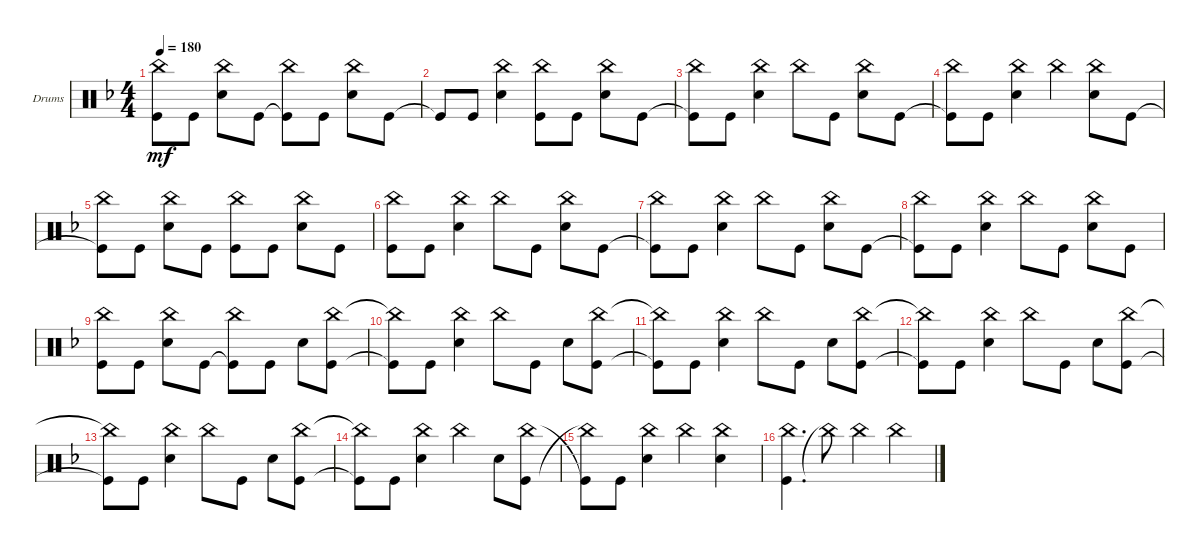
\defaultSystemsLayout 4
\bracketExtendMode groupsimilarinstruments
\firstSystemTrackNameOrientation horizontal
\otherSystemsTrackNameOrientation horizontal
\track ("Drumkit" "Drums") {instrument percussion}
\staff {score}
\articulation defaults
\ts (4 4)
\tempo 180
\clef neutral
\scale
0.333333
\ks f
("Kick (hit)"{t} "China (hit)").8{dy mf} "Kick (hit)".8 ("Snare (hit) 2" "China (hit)").8 "Kick (hit)".8 ("Kick (hit)"{t} "China (hit)").8 "Kick (hit)".8 ("Snare (hit) 2" "China (hit)").8 "Kick (hit)".8 |
\scale
0.333333 "Kick (hit)"{t}.8 "Kick (hit)".8 ("Snare (hit) 2" "China (hit)").4 ("China (hit)" "Kick (hit)").8 "Kick (hit)".8 ("Snare (hit) 2" "China (hit)").8 "Kick (hit)".8 |
\scale
0.333333 ("Kick (hit)"{t} "China (hit)").8 "Kick (hit)".8 ("Snare (hit) 2" "China (hit)").4 "China (hit)".8 "Kick (hit)".8 ("Snare (hit) 2" "China (hit)").8 "Kick (hit)".8 |
\scale
0.333333 ("Kick (hit)"{t} "China (hit)").8 "Kick (hit)".8 ("China (hit)" "Snare (hit) 2").4 "China (hit)".4 ("Snare (hit) 2" "China (hit)").8 "Kick (hit)".8 |
\scale
0.333333 ("Kick (hit)"{t} "China (hit)").8 "Kick (hit)".8 ("Snare (hit) 2" "China (hit)").8 "Kick (hit)".8 ("Kick (hit)" "China (hit)").8 "Kick (hit)".8 ("Snare (hit) 2" "China (hit)").8 "Kick (hit)".8 |
\scale
0.333333 ("Kick (hit)" "China (hit)").8 "Kick (hit)".8 ("Snare (hit) 2" "China (hit)").4 "China (hit)".8 "Kick (hit)".8 ("Snare (hit) 2" "China (hit)").8 "Kick (hit)".8 |
\scale
0.333333 ("Kick (hit)"{t} "China (hit)").8 "Kick (hit)".8 ("Snare (hit) 2" "China (hit)").4 "China (hit)".8 "Kick (hit)".8 ("Snare (hit) 2" "China (hit)").8 "Kick (hit)".8 |
\scale
0.333333 ("Kick (hit)"{t} "China (hit)").8 "Kick (hit)".8 ("Snare (hit) 2" "China (hit)").4 "China (hit)".8 "Kick (hit)".8 ("Snare (hit) 2" "China (hit)").8 "Kick (hit)".8 |
\scale
0.333333 ("Kick (hit)" "China (hit)").8 "Kick (hit)".8 ("Snare (hit) 2" "China (hit)").8 "Kick (hit)".8 ("Kick (hit)"{t} "China (hit)").8 "Kick (hit)".8 "Snare (hit) 2".8 ("Kick (hit)" "China (hit)").8 |
\scale
0.333333 ("Kick (hit)"{t} "China (hit)"{t}).8 "Kick (hit)".8 ("Snare (hit) 2" "China (hit)").4 "China (hit)".8 "Kick (hit)".8 "Snare (hit) 2".8 ("Kick (hit)" "China (hit)").8 |
\scale
0.333333 ("Kick (hit)"{t} "China (hit)"{t}).8 "Kick (hit)".8 ("Snare (hit) 2" "China (hit)").4 "China (hit)".8 "Kick (hit)".8 "Snare (hit) 2".8 ("Kick (hit)" "China (hit)").8 |
\scale
0.333333 ("Kick (hit)"{t} "China (hit)"{t}).8 "Kick (hit)".8 ("Snare (hit) 2" "China (hit)").4 "China (hit)".8 "Kick (hit)".8 "Snare (hit) 2".8 ("Kick (hit)" "China (hit)").8 |
\scale
0.333333 ("Kick (hit)"{t} "China (hit)"{t}).8 "Kick (hit)".8 ("Snare (hit) 2" "China (hit)").4 "China (hit)".8 "Kick (hit)".8 "Snare (hit) 2".8 ("Kick (hit)" "China (hit)").8 |
\scale
0.333333 ("Kick (hit)"{t} "China (hit)"{t}).8 "Kick (hit)".8 ("Snare (hit) 2" "China (hit)").4 "China (hit)".4 "Snare (hit) 2".8 ("Kick (hit)" "China (hit)").8 |
\scale
0.333333 ("China (hit)"{t} "Kick (hit)"{t}).8 "Kick (hit)".8 ("Snare (hit) 2" "China (hit)").4 "China (hit)".4 ("China (hit)" "Snare (hit) 2").4 |
\scale
0.333333 ("Kick (hit)" "China (hit)").4{d} "China (hit)"{t}.8 "China (hit)".4 "China (hit)".4
